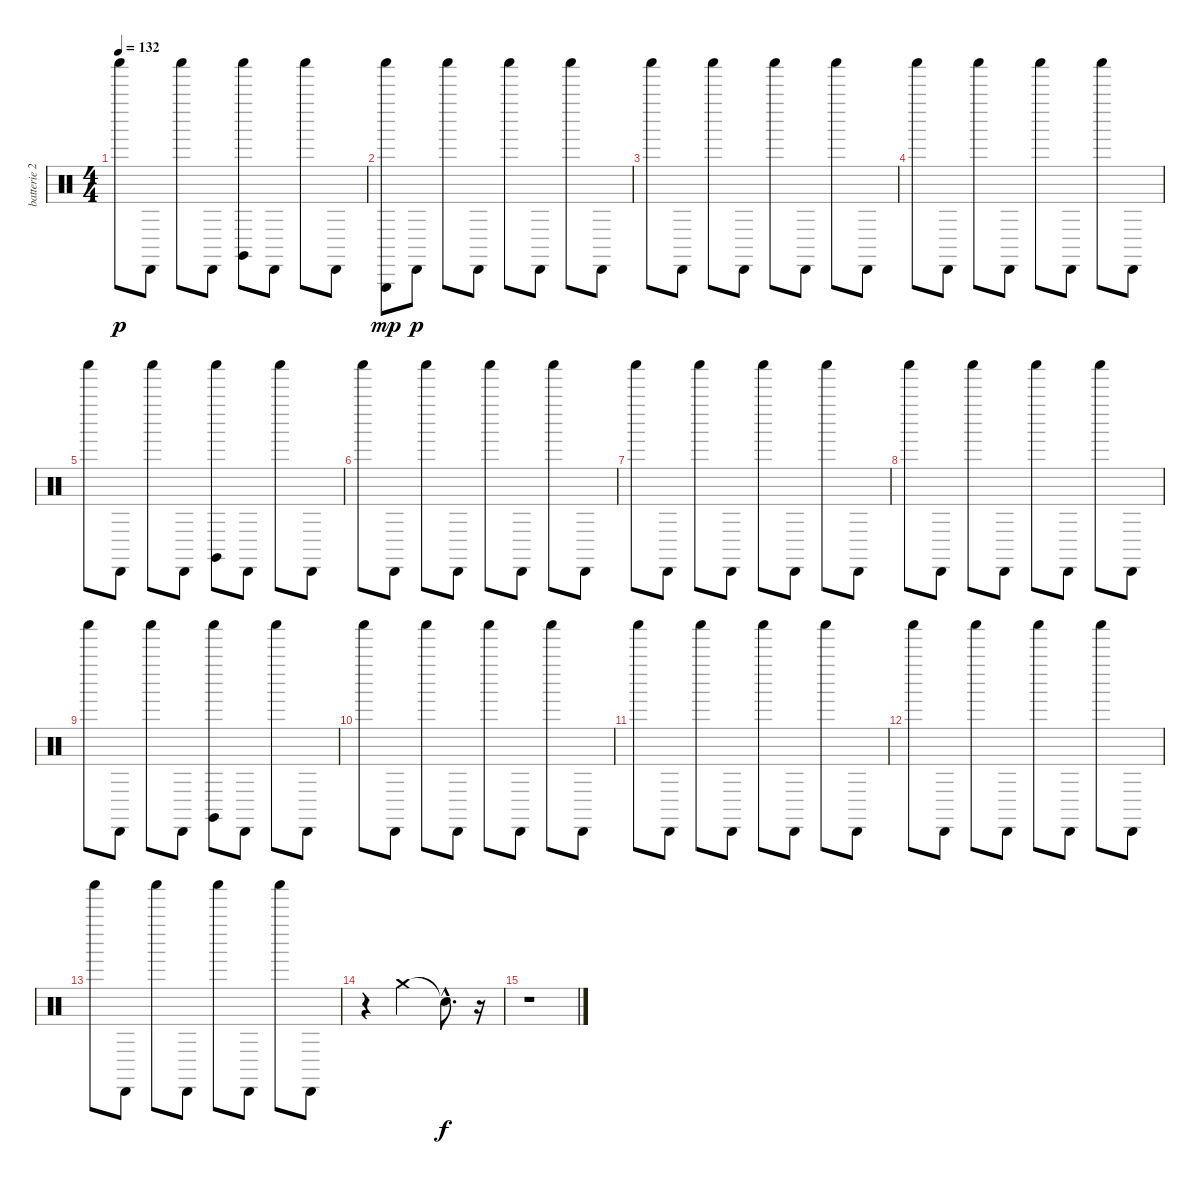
\track ("batterie 2" "batterie 2") {instrument percussion}
\staff {score}
\articulation defaults
\ts (4 4)
\tempo 132
\clef neutral
\ks c "Shaker (hit)".8{dy p} "Cabasa (hit)".8 "Shaker (hit)".8 "Cabasa (hit)".8
("Claves (hit)" "Shaker (hit)").8 "Cabasa (hit)".8 "Shaker (hit)".8 "Cabasa (hit)".8 |
("Triangle (hit)" "Shaker (hit)").8{dy mp} "Cabasa (hit)".8{dy p} "Shaker (hit)".8 "Cabasa (hit)".8 "Shaker (hit)".8 "Cabasa (hit)".8 "Shaker (hit)".8 "Cabasa (hit)".8 |
"Shaker (hit)".8 "Cabasa (hit)".8 "Shaker (hit)".8 "Cabasa (hit)".8 "Shaker (hit)".8 "Cabasa (hit)".8 "Shaker (hit)".8 "Cabasa (hit)".8 |
"Shaker (hit)".8 "Cabasa (hit)".8 "Shaker (hit)".8 "Cabasa (hit)".8 "Shaker (hit)".8 "Cabasa (hit)".8 "Shaker (hit)".8 "Cabasa (hit)".8 |
"Shaker (hit)".8 "Cabasa (hit)".8 "Shaker (hit)".8 "Cabasa (hit)".8 ("Claves (hit)" "Shaker (hit)").8 "Cabasa (hit)".8 "Shaker (hit)".8 "Cabasa (hit)".8 |
"Shaker (hit)".8 "Cabasa (hit)".8 "Shaker (hit)".8 "Cabasa (hit)".8 "Shaker (hit)".8 "Cabasa (hit)".8 "Shaker (hit)".8 "Cabasa (hit)".8 |
"Shaker (hit)".8 "Cabasa (hit)".8 "Shaker (hit)".8 "Cabasa (hit)".8 "Shaker (hit)".8 "Cabasa (hit)".8 "Shaker (hit)".8 "Cabasa (hit)".8 |
"Shaker (hit)".8 "Cabasa (hit)".8 "Shaker (hit)".8 "Cabasa (hit)".8 "Shaker (hit)".8 "Cabasa (hit)".8 "Shaker (hit)".8 "Cabasa (hit)".8 |
"Shaker (hit)".8 "Cabasa (hit)".8 "Shaker (hit)".8 "Cabasa (hit)".8 ("Claves (hit)" "Shaker (hit)").8 "Cabasa (hit)".8 "Shaker (hit)".8 "Cabasa (hit)".8 |
"Shaker (hit)".8 "Cabasa (hit)".8 "Shaker (hit)".8 "Cabasa (hit)".8 "Shaker (hit)".8 "Cabasa (hit)".8 "Shaker (hit)".8 "Cabasa (hit)".8 |
"Shaker (hit)".8 "Cabasa (hit)".8 "Shaker (hit)".8 "Cabasa (hit)".8 "Shaker (hit)".8 "Cabasa (hit)".8 "Shaker (hit)".8 "Cabasa (hit)".8 |
"Shaker (hit)".8 "Cabasa (hit)".8 "Shaker (hit)".8 "Cabasa (hit)".8 "Shaker (hit)".8 "Cabasa (hit)".8 "Shaker (hit)".8 "Cabasa (hit)".8 |
"Shaker (hit)".8 "Cabasa (hit)".8 "Shaker (hit)".8 "Cabasa (hit)".8 "Shaker (hit)".8 "Cabasa (hit)".8 "Shaker (hit)".8 "Cabasa (hit)".8 |
r.4 "Crash medium (hit)".2 "Snare (hit)"{hac t}.8{d dy f} r.16 |
r.1
